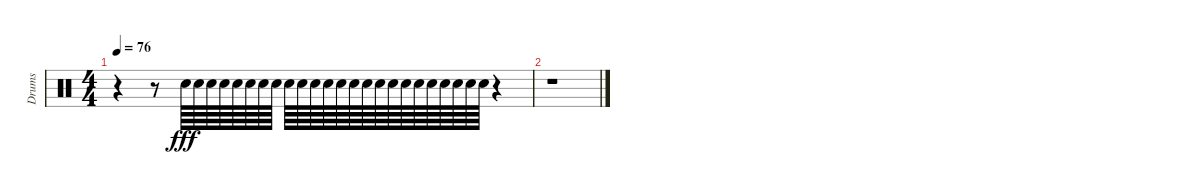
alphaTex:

\track ("Drums" "Drums") {instrument percussion}
\staff {score}
\articulation defaults
\ts (4 4)
\tempo 76
\clef neutral
\ks c
r.4{dy fff} r.8 "Snare (hit) 2".64 "Snare (hit) 2".64 "Snare (hit) 2".64 "Snare (hit) 2".64 "Snare (hit) 2".64 "Snare (hit) 2".64 "Snare (hit) 2".64 "Snare (hit) 2".64 "Snare (hit) 2".64 "Snare (hit) 2".64 "Snare (hit) 2".64 "Snare (hit) 2".64 "Snare (hit) 2".64 "Snare (hit) 2".64 "Snare (hit) 2".64 "Snare (hit) 2".64 "Snare (hit) 2".64 "Snare (hit) 2".64 "Snare (hit) 2".64 "Snare (hit) 2".64 "Snare (hit) 2".64 "Snare (hit) 2".64 "Snare (hit) 2".64 "Snare (hit) 2".64 r.4 |
r.1
